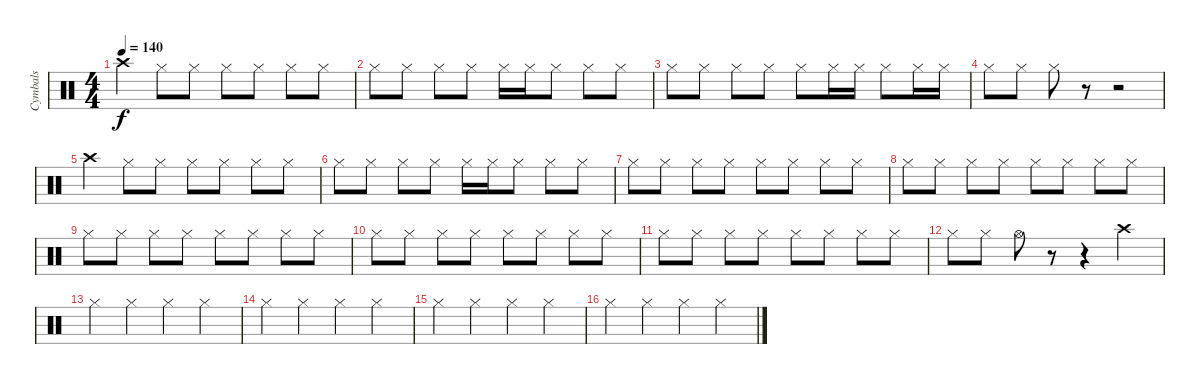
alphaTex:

\track ("Cymbals" "Cymbals") {instrument percussion}
\staff {score}
\articulation defaults
\ts (4 4)
\tempo 140
\clef neutral
\ks c "Crash high (hit)".4{dy f} "Hi-Hat (closed)".8 "Hi-Hat (closed)".8 "Hi-Hat (closed)".8 "Hi-Hat (closed)".8 "Hi-Hat (closed)".8 "Hi-Hat (closed)".8
|
"Hi-Hat (closed)".8 "Hi-Hat (closed)".8 "Hi-Hat (closed)".8 "Hi-Hat (closed)".8 "Hi-Hat (closed)".16 "Hi-Hat (closed)".16 "Hi-Hat (closed)".8 "Hi-Hat (closed)".8 "Hi-Hat (closed)".8 |
"Hi-Hat (closed)".8 "Hi-Hat (closed)".8 "Hi-Hat (closed)".8 "Hi-Hat (closed)".8 "Hi-Hat (closed)".8 "Hi-Hat (closed)".16 "Hi-Hat (closed)".16 "Hi-Hat (closed)".8 "Hi-Hat (closed)".16 "Hi-Hat (closed)".16 |
"Hi-Hat (closed)".8 "Hi-Hat (closed)".8 "Hi-Hat (closed)".8 r.8 r.2 |
"Crash high (hit)".4 "Hi-Hat (closed)".8 "Hi-Hat (closed)".8 "Hi-Hat (closed)".8 "Hi-Hat (closed)".8 "Hi-Hat (closed)".8 "Hi-Hat (closed)".8 |
"Hi-Hat (closed)".8 "Hi-Hat (closed)".8 "Hi-Hat (closed)".8 "Hi-Hat (closed)".8 "Hi-Hat (closed)".16 "Hi-Hat (closed)".16 "Hi-Hat (closed)".8 "Hi-Hat (closed)".8 "Hi-Hat (closed)".8 |
"Hi-Hat (closed)".8 "Hi-Hat (closed)".8 "Hi-Hat (closed)".8 "Hi-Hat (closed)".8 "Hi-Hat (closed)".8 "Hi-Hat (closed)".8 "Hi-Hat (closed)".8 "Hi-Hat (closed)".8 |
"Hi-Hat (closed)".8 "Hi-Hat (closed)".8 "Hi-Hat (closed)".8 "Hi-Hat (closed)".8 "Hi-Hat (closed)".8 "Hi-Hat (closed)".8 "Hi-Hat (closed)".8 "Hi-Hat (closed)".8 |
"Hi-Hat (closed)".8 "Hi-Hat (closed)".8 "Hi-Hat (closed)".8 "Hi-Hat (closed)".8 "Hi-Hat (closed)".8 "Hi-Hat (closed)".8 "Hi-Hat (closed)".8 "Hi-Hat (closed)".8 |
"Hi-Hat (closed)".8 "Hi-Hat (closed)".8 "Hi-Hat (closed)".8 "Hi-Hat (closed)".8 "Hi-Hat (closed)".8 "Hi-Hat (closed)".8 "Hi-Hat (closed)".8 "Hi-Hat (closed)".8 |
"Hi-Hat (closed)".8 "Hi-Hat (closed)".8 "Hi-Hat (closed)".8 "Hi-Hat (closed)".8 "Hi-Hat (closed)".8 "Hi-Hat (closed)".8 "Hi-Hat (closed)".8 "Hi-Hat (closed)".8 |
"Hi-Hat (closed)".8 "Hi-Hat (closed)".8 "Hi-Hat (open)".8 r.8 r.4 "Crash high (hit)".4 |
"Hi-Hat (closed)".4 "Hi-Hat (closed)".4 "Hi-Hat (closed)".4 "Hi-Hat (closed)".4 |
"Hi-Hat (closed)".4 "Hi-Hat (closed)".4 "Hi-Hat (closed)".4 "Hi-Hat (closed)".4 |
"Hi-Hat (closed)".4 "Hi-Hat (closed)".4 "Hi-Hat (closed)".4 "Hi-Hat (closed)".4 |
"Hi-Hat (closed)".4 "Hi-Hat (closed)".4 "Hi-Hat (closed)".4 "Hi-Hat (closed)".4
